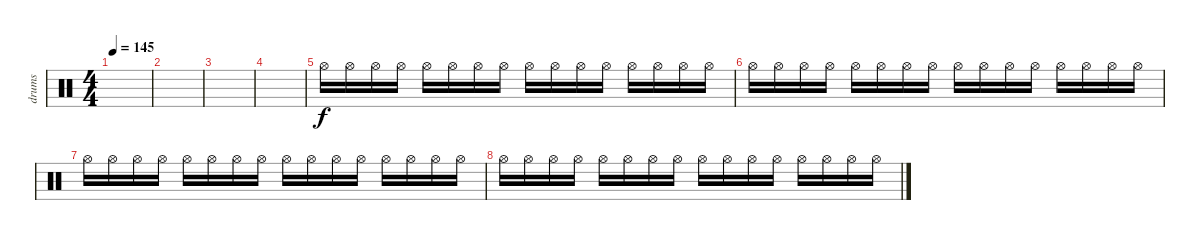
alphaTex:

\track ("drums" "drums") {instrument percussion}
\staff {score}
\articulation defaults
\ts (4 4)
\tempo 145
\clef neutral
\ks c
|
|
|
|
"Hi-Hat (open)".16{volume 12} "Hi-Hat (open)".16 "Hi-Hat (open)".16 "Hi-Hat (open)".16 "Hi-Hat (open)".16 "Hi-Hat (open)".16 "Hi-Hat (open)".16 "Hi-Hat (open)".16 "Hi-Hat (open)".16 "Hi-Hat (open)".16 "Hi-Hat (open)".16 "Hi-Hat (open)".16 "Hi-Hat (open)".16 "Hi-Hat (open)".16 "Hi-Hat (open)".16 "Hi-Hat (open)".16 |
"Hi-Hat (open)".16{volume 8} "Hi-Hat (open)".16 "Hi-Hat (open)".16 "Hi-Hat (open)".16 "Hi-Hat (open)".16 "Hi-Hat (open)".16 "Hi-Hat (open)".16 "Hi-Hat (open)".16 "Hi-Hat (open)".16 "Hi-Hat (open)".16 "Hi-Hat (open)".16 "Hi-Hat (open)".16 "Hi-Hat (open)".16 "Hi-Hat (open)".16 "Hi-Hat (open)".16 "Hi-Hat (open)".16 |
"Hi-Hat (open)".16{volume 5} "Hi-Hat (open)".16 "Hi-Hat (open)".16 "Hi-Hat (open)".16 "Hi-Hat (open)".16 "Hi-Hat (open)".16 "Hi-Hat (open)".16 "Hi-Hat (open)".16 "Hi-Hat (open)".16 "Hi-Hat (open)".16 "Hi-Hat (open)".16 "Hi-Hat (open)".16 "Hi-Hat (open)".16 "Hi-Hat (open)".16 "Hi-Hat (open)".16 "Hi-Hat (open)".16 |
"Hi-Hat (open)".16{volume 3} "Hi-Hat (open)".16 "Hi-Hat (open)".16 "Hi-Hat (open)".16 "Hi-Hat (open)".16 "Hi-Hat (open)".16 "Hi-Hat (open)".16 "Hi-Hat (open)".16 "Hi-Hat (open)".16 "Hi-Hat (open)".16 "Hi-Hat (open)".16 "Hi-Hat (open)".16 "Hi-Hat (open)".16 "Hi-Hat (open)".16 "Hi-Hat (open)".16 "Hi-Hat (open)".16
